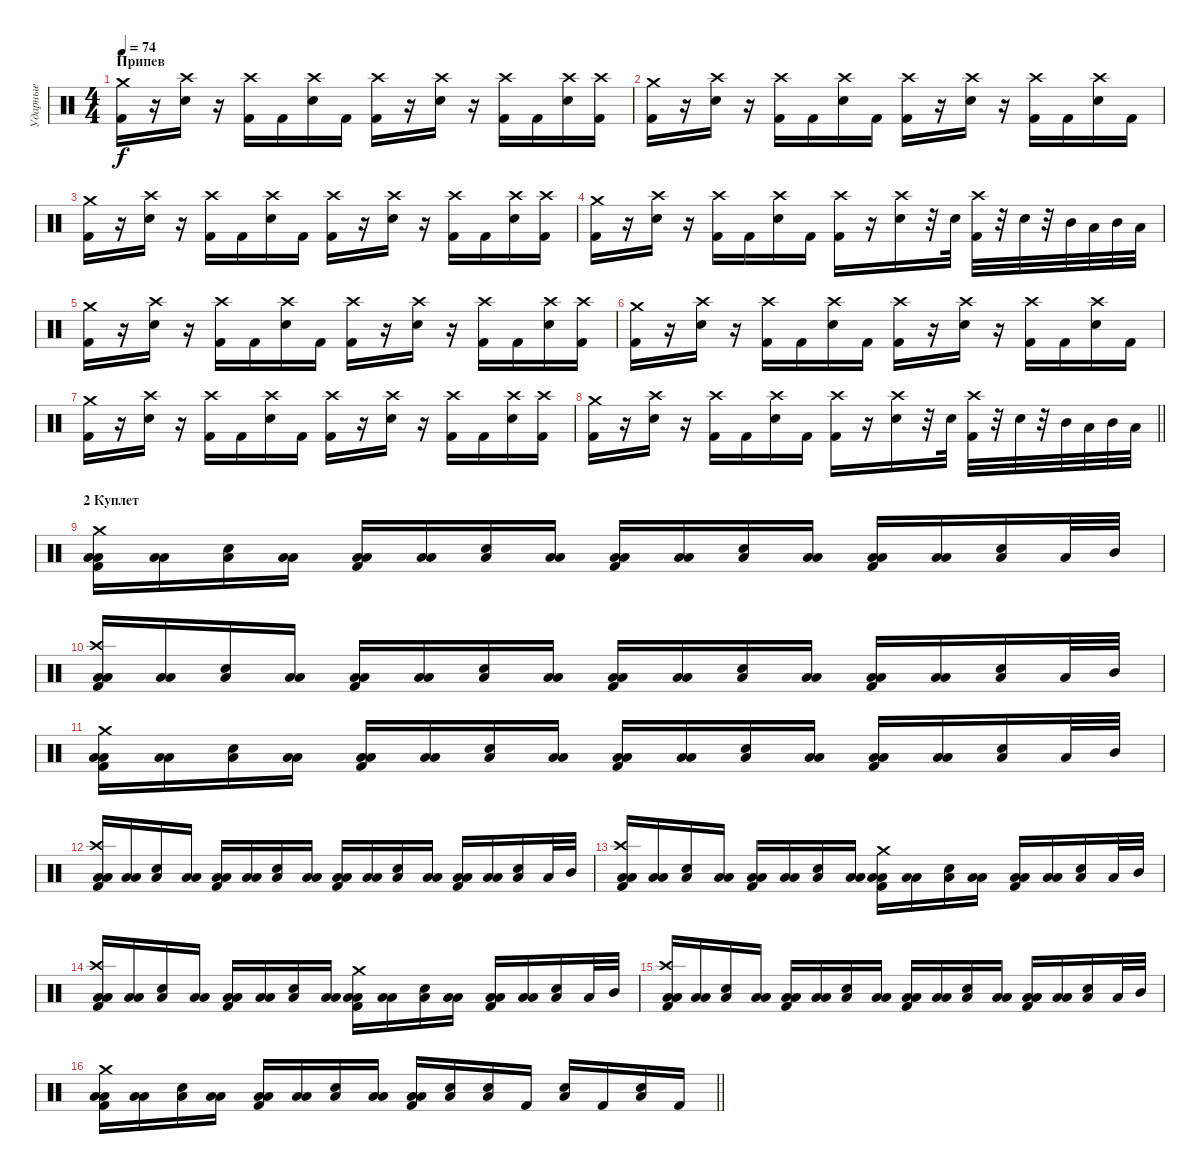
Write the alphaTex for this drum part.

\track ("Ударные" "Ударные") {instrument percussion}
\staff {score}
\articulation defaults
\ts (4 4)
\section ("" "Припев")
\tempo 74
\clef neutral
\ks c
("Crash medium (hit)" "Kick (hit) 2").16{dy f} r.16 ("Crash high (hit)" "Electric Snare (hit)").16 r.16 ("Crash high (hit)" "Kick (hit) 2").16 "Kick (hit) 2".16 ("Crash high (hit)" "Electric Snare (hit)").16 "Kick (hit) 2".16 ("Crash high (hit)" "Kick (hit) 2").16 r.16 ("Crash high (hit)" "Electric Snare (hit)").16 r.16 ("Crash high (hit)" "Kick (hit) 2").16 "Kick (hit) 2".16 ("Crash high (hit)" "Electric Snare (hit)").16 ("Crash high (hit)" "Kick (hit) 2").16 |
("Crash medium (hit)" "Kick (hit) 2").16 r.16 ("Crash high (hit)" "Electric Snare (hit)").16 r.16 ("Crash high (hit)" "Kick (hit) 2").16 "Kick (hit) 2".16 ("Crash high (hit)" "Electric Snare (hit)").16 "Kick (hit) 2".16 ("Crash high (hit)" "Kick (hit) 2").16 r.16 ("Crash high (hit)" "Electric Snare (hit)").16 r.16 ("Crash high (hit)" "Kick (hit) 2").16 "Kick (hit) 2".16 ("Crash high (hit)" "Electric Snare (hit)").16 "Kick (hit) 2".16 |
("Crash medium (hit)" "Kick (hit) 2").16 r.16 ("Crash high (hit)" "Electric Snare (hit)").16 r.16 ("Crash high (hit)" "Kick (hit) 2").16 "Kick (hit) 2".16 ("Crash high (hit)" "Electric Snare (hit)").16 "Kick (hit) 2".16 ("Crash high (hit)" "Kick (hit) 2").16 r.16 ("Crash high (hit)" "Electric Snare (hit)").16 r.16 ("Crash high (hit)" "Kick (hit) 2").16 "Kick (hit) 2".16 ("Crash high (hit)" "Electric Snare (hit)").16 ("Crash high (hit)" "Kick (hit) 2").16 |
("Crash medium (hit)" "Kick (hit) 2").16 r.16 ("Crash high (hit)" "Electric Snare (hit)").16 r.16 ("Crash high (hit)" "Kick (hit) 2").16 "Kick (hit) 2".16 ("Crash high (hit)" "Electric Snare (hit)").16 "Kick (hit) 2".16 ("Crash high (hit)" "Kick (hit) 2").16 r.16 ("Crash high (hit)" "Electric Snare (hit)").16 r.32 "Electric Snare (hit)".32 ("Crash high (hit)" "Kick (hit) 2").32 r.32 "Electric Snare (hit)".32 r.32 "Mid Tom (hit)".32 "Low Tom (hit)".32 "Mid Tom (hit)".32 "Low Tom (hit)".32 |
("Crash medium (hit)" "Kick (hit) 2").16 r.16 ("Crash high (hit)" "Electric Snare (hit)").16 r.16 ("Crash high (hit)" "Kick (hit) 2").16 "Kick (hit) 2".16 ("Crash high (hit)" "Electric Snare (hit)").16 "Kick (hit) 2".16 ("Crash high (hit)" "Kick (hit) 2").16 r.16 ("Crash high (hit)" "Electric Snare (hit)").16 r.16 ("Crash high (hit)" "Kick (hit) 2").16 "Kick (hit) 2".16 ("Crash high (hit)" "Electric Snare (hit)").16 ("Crash high (hit)" "Kick (hit) 2").16 |
("Crash medium (hit)" "Kick (hit) 2").16 r.16 ("Crash high (hit)" "Electric Snare (hit)").16 r.16 ("Crash high (hit)" "Kick (hit) 2").16 "Kick (hit) 2".16 ("Crash high (hit)" "Electric Snare (hit)").16 "Kick (hit) 2".16 ("Crash high (hit)" "Kick (hit) 2").16 r.16 ("Crash high (hit)" "Electric Snare (hit)").16 r.16 ("Crash high (hit)" "Kick (hit) 2").16 "Kick (hit) 2".16 ("Crash high (hit)" "Electric Snare (hit)").16 "Kick (hit) 2".16 |
("Crash medium (hit)" "Kick (hit) 2").16 r.16 ("Crash high (hit)" "Electric Snare (hit)").16 r.16 ("Crash high (hit)" "Kick (hit) 2").16 "Kick (hit) 2".16 ("Crash high (hit)" "Electric Snare (hit)").16 "Kick (hit) 2".16 ("Crash high (hit)" "Kick (hit) 2").16 r.16 ("Crash high (hit)" "Electric Snare (hit)").16 r.16 ("Crash high (hit)" "Kick (hit) 2").16 "Kick (hit) 2".16 ("Crash high (hit)" "Electric Snare (hit)").16 ("Crash high (hit)" "Kick (hit) 2").16 |
\barLineRight lightlight
("Crash medium (hit)" "Kick (hit) 2").16 r.16 ("Crash high (hit)" "Electric Snare (hit)").16 r.16 ("Crash high (hit)" "Kick (hit) 2").16 "Kick (hit) 2".16 ("Crash high (hit)" "Electric Snare (hit)").16 "Kick (hit) 2".16 ("Crash high (hit)" "Kick (hit) 2").16 r.16 ("Crash high (hit)" "Electric Snare (hit)").16 r.32 "Electric Snare (hit)".32 ("Crash high (hit)" "Kick (hit) 2").32 r.32 "Electric Snare (hit)".32 r.32 "Mid Tom (hit)".32 "Low Tom (hit)".32 "Mid Tom (hit)".32 "Low Tom (hit)".32 |
\section ("" "2 Куплет")
("Crash medium (hit)" "Low Tom (hit)" "Low Floor Tom (hit)" "Kick (hit) 2").16 ("Low Tom (hit)" "Low Floor Tom (hit)").16 ("Low Floor Tom (hit)" "Electric Snare (hit)").16 ("Low Tom (hit)" "Low Floor Tom (hit)").16 ("Low Tom (hit)" "Low Floor Tom (hit)" "Kick (hit) 2").16 ("Low Tom (hit)" "Low Floor Tom (hit)").16 ("Low Floor Tom (hit)" "Electric Snare (hit)").16 ("Low Tom (hit)" "Low Floor Tom (hit)").16 ("Low Tom (hit)" "Low Floor Tom (hit)" "Kick (hit) 2").16 ("Low Tom (hit)" "Low Floor Tom (hit)").16 ("Low Floor Tom (hit)" "Electric Snare (hit)").16 ("Low Tom (hit)" "Low Floor Tom (hit)").16 ("Low Tom (hit)" "Low Floor Tom (hit)" "Kick (hit) 2").16 ("Low Tom (hit)" "Low Floor Tom (hit)").16 ("Low Floor Tom (hit)" "Electric Snare (hit)").16 "Low Tom (hit)".32 "Mid Tom (hit)".32 |
("Crash high (hit)" "Low Tom (hit)" "Low Floor Tom (hit)" "Kick (hit) 2").16 ("Low Tom (hit)" "Low Floor Tom (hit)").16 ("Low Floor Tom (hit)" "Electric Snare (hit)").16 ("Low Tom (hit)" "Low Floor Tom (hit)").16 ("Low Tom (hit)" "Low Floor Tom (hit)" "Kick (hit) 2").16 ("Low Tom (hit)" "Low Floor Tom (hit)").16 ("Low Floor Tom (hit)" "Electric Snare (hit)").16 ("Low Tom (hit)" "Low Floor Tom (hit)").16 ("Low Tom (hit)" "Low Floor Tom (hit)" "Kick (hit) 2").16 ("Low Tom (hit)" "Low Floor Tom (hit)").16 ("Low Floor Tom (hit)" "Electric Snare (hit)").16 ("Low Tom (hit)" "Low Floor Tom (hit)").16 ("Low Tom (hit)" "Low Floor Tom (hit)" "Kick (hit) 2").16 ("Low Tom (hit)" "Low Floor Tom (hit)").16 ("Low Floor Tom (hit)" "Electric Snare (hit)").16 "Low Tom (hit)".32 "Mid Tom (hit)".32 |
("Crash medium (hit)" "Low Tom (hit)" "Low Floor Tom (hit)" "Kick (hit) 2").16 ("Low Tom (hit)" "Low Floor Tom (hit)").16 ("Low Floor Tom (hit)" "Electric Snare (hit)").16 ("Low Tom (hit)" "Low Floor Tom (hit)").16 ("Low Tom (hit)" "Low Floor Tom (hit)" "Kick (hit) 2").16 ("Low Tom (hit)" "Low Floor Tom (hit)").16 ("Low Floor Tom (hit)" "Electric Snare (hit)").16 ("Low Tom (hit)" "Low Floor Tom (hit)").16 ("Low Tom (hit)" "Low Floor Tom (hit)" "Kick (hit) 2").16 ("Low Tom (hit)" "Low Floor Tom (hit)").16 ("Low Floor Tom (hit)" "Electric Snare (hit)").16 ("Low Tom (hit)" "Low Floor Tom (hit)").16 ("Low Tom (hit)" "Low Floor Tom (hit)" "Kick (hit) 2").16 ("Low Tom (hit)" "Low Floor Tom (hit)").16 ("Low Floor Tom (hit)" "Electric Snare (hit)").16 "Low Tom (hit)".32 "Mid Tom (hit)".32 |
("Crash high (hit)" "Low Tom (hit)" "Low Floor Tom (hit)" "Kick (hit) 2").16 ("Low Tom (hit)" "Low Floor Tom (hit)").16 ("Low Floor Tom (hit)" "Electric Snare (hit)").16 ("Low Tom (hit)" "Low Floor Tom (hit)").16 ("Low Tom (hit)" "Low Floor Tom (hit)" "Kick (hit) 2").16 ("Low Tom (hit)" "Low Floor Tom (hit)").16 ("Low Floor Tom (hit)" "Electric Snare (hit)").16 ("Low Tom (hit)" "Low Floor Tom (hit)").16 ("Low Tom (hit)" "Low Floor Tom (hit)" "Kick (hit) 2").16 ("Low Tom (hit)" "Low Floor Tom (hit)").16 ("Low Floor Tom (hit)" "Electric Snare (hit)").16 ("Low Tom (hit)" "Low Floor Tom (hit)").16 ("Low Tom (hit)" "Low Floor Tom (hit)" "Kick (hit) 2").16 ("Low Tom (hit)" "Low Floor Tom (hit)").16 ("Low Floor Tom (hit)" "Electric Snare (hit)").16 "Low Tom (hit)".32 "Mid Tom (hit)".32 |
("Crash high (hit)" "Low Tom (hit)" "Low Floor Tom (hit)" "Kick (hit) 2").16 ("Low Tom (hit)" "Low Floor Tom (hit)").16 ("Low Floor Tom (hit)" "Electric Snare (hit)").16 ("Low Tom (hit)" "Low Floor Tom (hit)").16 ("Low Tom (hit)" "Low Floor Tom (hit)" "Kick (hit) 2").16 ("Low Tom (hit)" "Low Floor Tom (hit)").16 ("Low Floor Tom (hit)" "Electric Snare (hit)").16 ("Low Tom (hit)" "Low Floor Tom (hit)").16 ("Crash medium (hit)" "Low Tom (hit)" "Low Floor Tom (hit)" "Kick (hit) 2").16 ("Low Tom (hit)" "Low Floor Tom (hit)").16 ("Low Floor Tom (hit)" "Electric Snare (hit)").16 ("Low Tom (hit)" "Low Floor Tom (hit)").16 ("Low Tom (hit)" "Low Floor Tom (hit)" "Kick (hit) 2").16 ("Low Tom (hit)" "Low Floor Tom (hit)").16 ("Low Floor Tom (hit)" "Electric Snare (hit)").16 "Low Tom (hit)".32 "Mid Tom (hit)".32 |
("Crash high (hit)" "Low Tom (hit)" "Low Floor Tom (hit)" "Kick (hit) 2").16 ("Low Tom (hit)" "Low Floor Tom (hit)").16 ("Low Floor Tom (hit)" "Electric Snare (hit)").16 ("Low Tom (hit)" "Low Floor Tom (hit)").16 ("Low Tom (hit)" "Low Floor Tom (hit)" "Kick (hit) 2").16 ("Low Tom (hit)" "Low Floor Tom (hit)").16 ("Low Floor Tom (hit)" "Electric Snare (hit)").16 ("Low Tom (hit)" "Low Floor Tom (hit)").16 ("Crash medium (hit)" "Low Tom (hit)" "Low Floor Tom (hit)" "Kick (hit) 2").16 ("Low Tom (hit)" "Low Floor Tom (hit)").16 ("Low Floor Tom (hit)" "Electric Snare (hit)").16 ("Low Tom (hit)" "Low Floor Tom (hit)").16 ("Low Tom (hit)" "Low Floor Tom (hit)" "Kick (hit) 2").16 ("Low Tom (hit)" "Low Floor Tom (hit)").16 ("Low Floor Tom (hit)" "Electric Snare (hit)").16 "Low Tom (hit)".32 "Mid Tom (hit)".32 |
("Crash high (hit)" "Low Tom (hit)" "Low Floor Tom (hit)" "Kick (hit) 2").16 ("Low Tom (hit)" "Low Floor Tom (hit)").16 ("Low Floor Tom (hit)" "Electric Snare (hit)").16 ("Low Tom (hit)" "Low Floor Tom (hit)").16 ("Low Tom (hit)" "Low Floor Tom (hit)" "Kick (hit) 2").16 ("Low Tom (hit)" "Low Floor Tom (hit)").16 ("Low Floor Tom (hit)" "Electric Snare (hit)").16 ("Low Tom (hit)" "Low Floor Tom (hit)").16 ("Low Tom (hit)" "Low Floor Tom (hit)" "Kick (hit) 2").16 ("Low Tom (hit)" "Low Floor Tom (hit)").16 ("Low Floor Tom (hit)" "Electric Snare (hit)").16 ("Low Tom (hit)" "Low Floor Tom (hit)").16 ("Low Tom (hit)" "Low Floor Tom (hit)" "Kick (hit) 2").16 ("Low Tom (hit)" "Low Floor Tom (hit)").16 ("Low Floor Tom (hit)" "Electric Snare (hit)").16 "Low Tom (hit)".32 "Mid Tom (hit)".32 |
\barLineRight lightlight
("Crash medium (hit)" "Low Tom (hit)" "Low Floor Tom (hit)" "Kick (hit) 2").16 ("Low Tom (hit)" "Low Floor Tom (hit)").16 ("Low Floor Tom (hit)" "Electric Snare (hit)").16 ("Low Tom (hit)" "Low Floor Tom (hit)").16 ("Low Tom (hit)" "Low Floor Tom (hit)" "Kick (hit) 2").16 ("Low Tom (hit)" "Low Floor Tom (hit)").16 ("Low Floor Tom (hit)" "Electric Snare (hit)").16 ("Low Tom (hit)" "Low Floor Tom (hit)").16 ("Low Tom (hit)" "Low Floor Tom (hit)" "Kick (hit) 2").16 ("Low Floor Tom (hit)" "Electric Snare (hit)").16 ("Low Floor Tom (hit)" "Electric Snare (hit)").16 "Kick (hit) 2".16 ("Low Floor Tom (hit)" "Electric Snare (hit)").16 "Kick (hit) 2".16 ("Low Floor Tom (hit)" "Electric Snare (hit)").16 "Kick (hit) 2".16
